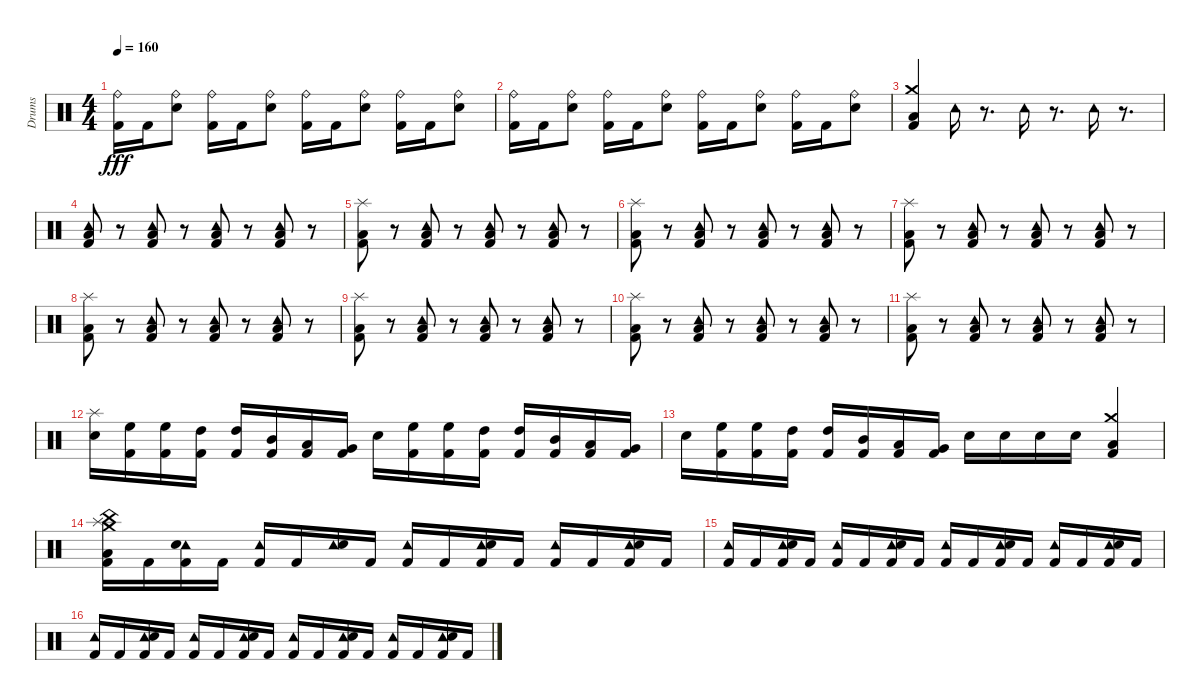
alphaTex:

\track ("Drums" "Drums") {instrument percussion}
\staff {score}
\articulation defaults
\ts (4 4)
\tempo 160
\clef neutral
\ks c
("Kick (hit) 2" "Ride (bell)").16{dy fff} "Kick (hit) 2".16 ("Electric Snare (hit)" "Ride (bell)").8 ("Kick (hit) 2" "Ride (bell)").16 "Kick (hit) 2".16 ("Electric Snare (hit)" "Ride (bell)").8 ("Kick (hit) 2" "Ride (bell)").16 "Kick (hit) 2".16 ("Electric Snare (hit)" "Ride (bell)").8 ("Kick (hit) 2" "Ride (bell)").16 "Kick (hit) 2".16 ("Electric Snare (hit)" "Ride (bell)").8 |
("Kick (hit) 2" "Ride (bell)").16 "Kick (hit) 2".16 ("Electric Snare (hit)" "Ride (bell)").8 ("Kick (hit) 2" "Ride (bell)").16 "Kick (hit) 2".16 ("Electric Snare (hit)" "Ride (bell)").8 ("Kick (hit) 2" "Ride (bell)").16 "Kick (hit) 2".16 ("Electric Snare (hit)" "Ride (bell)").8 ("Kick (hit) 2" "Ride (bell)").16 "Kick (hit) 2".16 ("Electric Snare (hit)" "Ride (bell)").8 |
("Kick (hit) 2" "Crash medium (hit)" "Low Tom (hit)").4 "Tambourine (hit)".16 r.8{d} "Tambourine (hit)".16 r.8{d} "Tambourine (hit)".16 r.8{d} |
("Tambourine (hit)" "Low Tom (hit)" "Kick (hit) 2").8 r.8 ("Tambourine (hit)" "Low Tom (hit)" "Kick (hit) 2").8 r.8 ("Tambourine (hit)" "Low Tom (hit)" "Kick (hit) 2").8 r.8 ("Tambourine (hit)" "Low Tom (hit)" "Kick (hit) 2").8 r.8 |
("Low Tom (hit)" "Splash (hit)" "Kick (hit) 2").8 r.8 ("Tambourine (hit)" "Low Tom (hit)" "Kick (hit) 2").8 r.8 ("Tambourine (hit)" "Low Tom (hit)" "Kick (hit) 2").8 r.8 ("Tambourine (hit)" "Low Tom (hit)" "Kick (hit) 2").8 r.8 |
("Low Tom (hit)" "Splash (hit)" "Kick (hit) 2").8 r.8 ("Tambourine (hit)" "Low Tom (hit)" "Kick (hit) 2").8 r.8 ("Tambourine (hit)" "Low Tom (hit)" "Kick (hit) 2").8 r.8 ("Tambourine (hit)" "Low Tom (hit)" "Kick (hit) 2").8 r.8 |
("Low Tom (hit)" "Splash (hit)" "Kick (hit) 2").8 r.8 ("Tambourine (hit)" "Low Tom (hit)" "Kick (hit) 2").8 r.8 ("Tambourine (hit)" "Low Tom (hit)" "Kick (hit) 2").8 r.8 ("Tambourine (hit)" "Low Tom (hit)" "Kick (hit) 2").8 r.8 |
("Low Tom (hit)" "Splash (hit)" "Kick (hit) 2").8 r.8 ("Tambourine (hit)" "Low Tom (hit)" "Kick (hit) 2").8 r.8 ("Tambourine (hit)" "Low Tom (hit)" "Kick (hit) 2").8 r.8 ("Tambourine (hit)" "Low Tom (hit)" "Kick (hit) 2").8 r.8 |
("Low Tom (hit)" "Splash (hit)" "Kick (hit) 2").8 r.8 ("Tambourine (hit)" "Low Tom (hit)" "Kick (hit) 2").8 r.8 ("Tambourine (hit)" "Low Tom (hit)" "Kick (hit) 2").8 r.8 ("Tambourine (hit)" "Low Tom (hit)" "Kick (hit) 2").8 r.8 |
("Low Tom (hit)" "Splash (hit)" "Kick (hit) 2").8 r.8 ("Tambourine (hit)" "Low Tom (hit)" "Kick (hit) 2").8 r.8 ("Tambourine (hit)" "Low Tom (hit)" "Kick (hit) 2").8 r.8 ("Tambourine (hit)" "Low Tom (hit)" "Kick (hit) 2").8 r.8 |
("Low Tom (hit)" "Splash (hit)" "Kick (hit) 2").8 r.8 ("Tambourine (hit)" "Low Tom (hit)" "Kick (hit) 2").8 r.8 ("Tambourine (hit)" "Low Tom (hit)" "Kick (hit) 2").8 r.8 ("Tambourine (hit)" "Low Tom (hit)" "Kick (hit) 2").8 r.8 |
("Splash (hit)" "Electric Snare (hit)").16 ("High Floor Tom (hit)" "Kick (hit) 2").16 ("High Floor Tom (hit)" "Kick (hit) 2").16 ("High Tom (hit)" "Kick (hit) 2").16 ("High Tom (hit)" "Kick (hit) 2").16 ("Mid Tom (hit)" "Kick (hit) 2").16 ("Low Tom (hit)" "Kick (hit) 2").16 ("Very Low Tom (hit)" "Kick (hit) 2").16 "Electric Snare (hit)".16 ("High Floor Tom (hit)" "Kick (hit) 2").16 ("High Floor Tom (hit)" "Kick (hit) 2").16 ("High Tom (hit)" "Kick (hit) 2").16 ("High Tom (hit)" "Kick (hit) 2").16 ("Mid Tom (hit)" "Kick (hit) 2").16 ("Low Tom (hit)" "Kick (hit) 2").16 ("Very Low Tom (hit)" "Kick (hit) 2").16 |
"Electric Snare (hit)".16 ("High Floor Tom (hit)" "Kick (hit) 2").16 ("High Floor Tom (hit)" "Kick (hit) 2").16 ("High Tom (hit)" "Kick (hit) 2").16 ("High Tom (hit)" "Kick (hit) 2").16 ("Mid Tom (hit)" "Kick (hit) 2").16 ("Low Tom (hit)" "Kick (hit) 2").16 ("Very Low Tom (hit)" "Kick (hit) 2").16 "Electric Snare (hit)".16 "Electric Snare (hit)".16 "Electric Snare (hit)".16 "Electric Snare (hit)".16 ("Low Tom (hit)" "Kick (hit) 2" "Crash medium (hit)").4 |
("Low Tom (hit)" "China (hit)" "Splash (hit)" "Crash medium (hit)" "Kick (hit) 2").16 "Kick (hit) 2".16 ("Kick (hit) 2" "Tambourine (hit)" "Electric Snare (hit)").16 "Kick (hit) 2".16 ("Kick (hit) 2" "Tambourine (hit)").16 "Kick (hit) 2".16 ("Tambourine (hit)" "Electric Snare (hit)").16 "Kick (hit) 2".16 ("Kick (hit) 2" "Tambourine (hit)").16 "Kick (hit) 2".16 ("Kick (hit) 2" "Tambourine (hit)" "Electric Snare (hit)").16 "Kick (hit) 2".16 ("Kick (hit) 2" "Tambourine (hit)").16 "Kick (hit) 2".16 ("Kick (hit) 2" "Tambourine (hit)" "Electric Snare (hit)").16 "Kick (hit) 2".16 |
("Kick (hit) 2" "Tambourine (hit)").16 "Kick (hit) 2".16 ("Kick (hit) 2" "Tambourine (hit)" "Electric Snare (hit)").16 "Kick (hit) 2".16 ("Kick (hit) 2" "Tambourine (hit)").16 "Kick (hit) 2".16 ("Kick (hit) 2" "Tambourine (hit)" "Electric Snare (hit)").16 "Kick (hit) 2".16 ("Kick (hit) 2" "Tambourine (hit)").16 "Kick (hit) 2".16 ("Kick (hit) 2" "Tambourine (hit)" "Electric Snare (hit)").16 "Kick (hit) 2".16 ("Kick (hit) 2" "Tambourine (hit)").16 "Kick (hit) 2".16 ("Kick (hit) 2" "Tambourine (hit)" "Electric Snare (hit)").16 "Kick (hit) 2".16 |
("Kick (hit) 2" "Tambourine (hit)").16 "Kick (hit) 2".16 ("Kick (hit) 2" "Tambourine (hit)" "Electric Snare (hit)").16 "Kick (hit) 2".16 ("Kick (hit) 2" "Tambourine (hit)").16 "Kick (hit) 2".16 ("Kick (hit) 2" "Tambourine (hit)" "Electric Snare (hit)").16 "Kick (hit) 2".16 ("Kick (hit) 2" "Tambourine (hit)").16 "Kick (hit) 2".16 ("Kick (hit) 2" "Tambourine (hit)" "Electric Snare (hit)").16 "Kick (hit) 2".16 ("Kick (hit) 2" "Tambourine (hit)").16 "Kick (hit) 2".16 ("Kick (hit) 2" "Tambourine (hit)" "Electric Snare (hit)").16 "Kick (hit) 2".16
